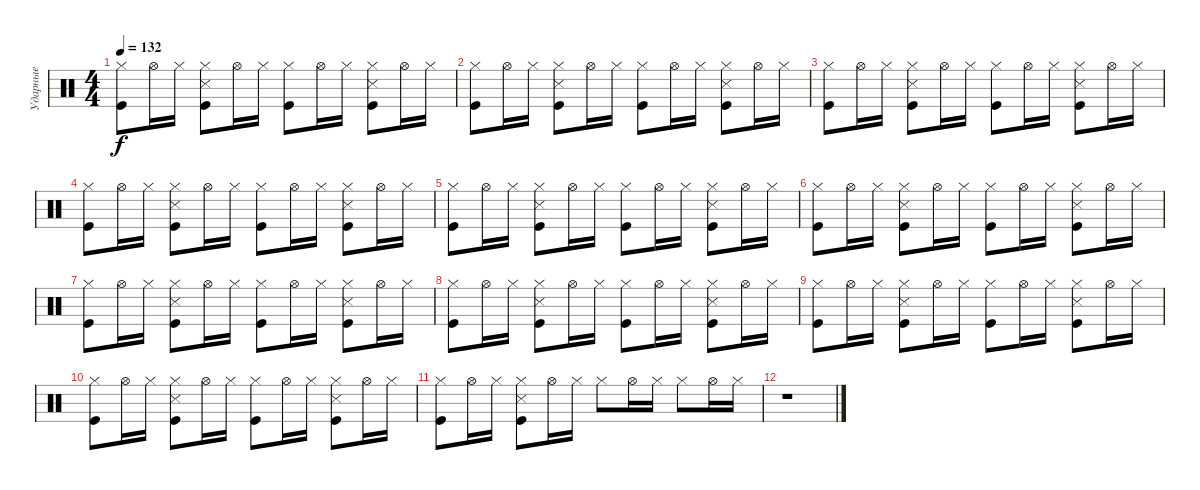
\track ("Ударные" "Ударные") {instrument percussion}
\staff {score}
\articulation defaults
\ts (4 4)
\tempo 132
\clef neutral
\ks c
("Kick (hit)" "Hi-Hat (closed)").8{dy f} "Hi-Hat (open)".16 "Hi-Hat (closed)".16 ("Hi-Hat (closed)" "Kick (hit)" "Snare (side stick) 3").8 "Hi-Hat (open)".16 "Hi-Hat (closed)".16 ("Kick (hit)" "Hi-Hat (closed)").8 "Hi-Hat (open)".16 "Hi-Hat (closed)".16 ("Hi-Hat (closed)" "Kick (hit)" "Snare (side stick) 3").8 "Hi-Hat (open)".16 "Hi-Hat (closed)".16 |
("Kick (hit)" "Hi-Hat (closed)").8 "Hi-Hat (open)".16 "Hi-Hat (closed)".16 ("Hi-Hat (closed)" "Kick (hit)" "Snare (side stick) 3").8 "Hi-Hat (open)".16 "Hi-Hat (closed)".16 ("Kick (hit)" "Hi-Hat (closed)").8 "Hi-Hat (open)".16 "Hi-Hat (closed)".16 ("Hi-Hat (closed)" "Kick (hit)" "Snare (side stick) 3").8 "Hi-Hat (open)".16 "Hi-Hat (closed)".16 |
("Kick (hit)" "Hi-Hat (closed)").8 "Hi-Hat (open)".16 "Hi-Hat (closed)".16 ("Hi-Hat (closed)" "Kick (hit)" "Snare (side stick) 3").8 "Hi-Hat (open)".16 "Hi-Hat (closed)".16 ("Kick (hit)" "Hi-Hat (closed)").8 "Hi-Hat (open)".16 "Hi-Hat (closed)".16 ("Hi-Hat (closed)" "Kick (hit)" "Snare (side stick) 3").8 "Hi-Hat (open)".16 "Hi-Hat (closed)".16 |
("Kick (hit)" "Hi-Hat (closed)").8 "Hi-Hat (open)".16 "Hi-Hat (closed)".16 ("Hi-Hat (closed)" "Kick (hit)" "Snare (side stick) 3").8 "Hi-Hat (open)".16 "Hi-Hat (closed)".16 ("Kick (hit)" "Hi-Hat (closed)").8 "Hi-Hat (open)".16 "Hi-Hat (closed)".16 ("Hi-Hat (closed)" "Kick (hit)" "Snare (side stick) 3").8 "Hi-Hat (open)".16 "Hi-Hat (closed)".16 |
("Kick (hit)" "Hi-Hat (closed)").8 "Hi-Hat (open)".16 "Hi-Hat (closed)".16 ("Hi-Hat (closed)" "Kick (hit)" "Snare (side stick) 3").8 "Hi-Hat (open)".16 "Hi-Hat (closed)".16 ("Kick (hit)" "Hi-Hat (closed)").8 "Hi-Hat (open)".16 "Hi-Hat (closed)".16 ("Hi-Hat (closed)" "Kick (hit)" "Snare (side stick) 3").8 "Hi-Hat (open)".16 "Hi-Hat (closed)".16 |
("Kick (hit)" "Hi-Hat (closed)").8 "Hi-Hat (open)".16 "Hi-Hat (closed)".16 ("Hi-Hat (closed)" "Kick (hit)" "Snare (side stick) 3").8 "Hi-Hat (open)".16 "Hi-Hat (closed)".16 ("Kick (hit)" "Hi-Hat (closed)").8 "Hi-Hat (open)".16 "Hi-Hat (closed)".16 ("Hi-Hat (closed)" "Kick (hit)" "Snare (side stick) 3").8 "Hi-Hat (open)".16 "Hi-Hat (closed)".16 |
("Kick (hit)" "Hi-Hat (closed)").8 "Hi-Hat (open)".16 "Hi-Hat (closed)".16 ("Hi-Hat (closed)" "Kick (hit)" "Snare (side stick) 3").8 "Hi-Hat (open)".16 "Hi-Hat (closed)".16 ("Kick (hit)" "Hi-Hat (closed)").8 "Hi-Hat (open)".16 "Hi-Hat (closed)".16 ("Hi-Hat (closed)" "Kick (hit)" "Snare (side stick) 3").8 "Hi-Hat (open)".16 "Hi-Hat (closed)".16 |
("Kick (hit)" "Hi-Hat (closed)").8 "Hi-Hat (open)".16 "Hi-Hat (closed)".16 ("Hi-Hat (closed)" "Kick (hit)" "Snare (side stick) 3").8 "Hi-Hat (open)".16 "Hi-Hat (closed)".16 ("Kick (hit)" "Hi-Hat (closed)").8 "Hi-Hat (open)".16 "Hi-Hat (closed)".16 ("Hi-Hat (closed)" "Kick (hit)" "Snare (side stick) 3").8 "Hi-Hat (open)".16 "Hi-Hat (closed)".16 |
("Kick (hit)" "Hi-Hat (closed)").8 "Hi-Hat (open)".16 "Hi-Hat (closed)".16 ("Hi-Hat (closed)" "Kick (hit)" "Snare (side stick) 3").8 "Hi-Hat (open)".16 "Hi-Hat (closed)".16 ("Kick (hit)" "Hi-Hat (closed)").8 "Hi-Hat (open)".16 "Hi-Hat (closed)".16 ("Hi-Hat (closed)" "Kick (hit)" "Snare (side stick) 3").8 "Hi-Hat (open)".16 "Hi-Hat (closed)".16 |
("Kick (hit)" "Hi-Hat (closed)").8 "Hi-Hat (open)".16 "Hi-Hat (closed)".16 ("Hi-Hat (closed)" "Kick (hit)" "Snare (side stick) 3").8 "Hi-Hat (open)".16 "Hi-Hat (closed)".16 ("Kick (hit)" "Hi-Hat (closed)").8 "Hi-Hat (open)".16 "Hi-Hat (closed)".16 ("Hi-Hat (closed)" "Kick (hit)" "Snare (side stick) 3").8 "Hi-Hat (open)".16 "Hi-Hat (closed)".16 |
("Kick (hit)" "Hi-Hat (closed)").8 "Hi-Hat (open)".16 "Hi-Hat (closed)".16 ("Hi-Hat (closed)" "Kick (hit)" "Snare (side stick) 3").8 "Hi-Hat (open)".16 "Hi-Hat (closed)".16 "Hi-Hat (closed)".8 "Hi-Hat (open)".16 "Hi-Hat (closed)".16 "Hi-Hat (closed)".8 "Hi-Hat (open)".16 "Hi-Hat (closed)".16 |
r.1
